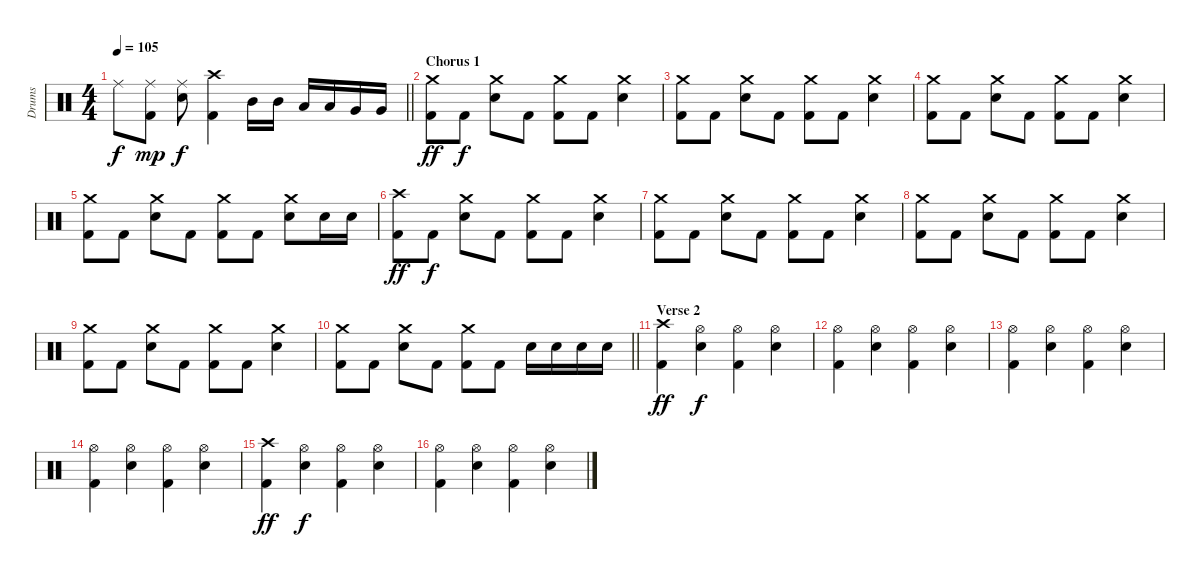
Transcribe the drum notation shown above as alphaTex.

\track ("Drums" "Drums") {instrument percussion}
\staff {score}
\articulation defaults
\ts (4 4)
\tempo 105
\clef neutral
\barLineRight lightlight
\ks c "Ride (middle)".8{dy f}
("Ride (middle)" "Kick (hit) 2").8{dy mp} ("Ride (middle)" "Snare (hit) 2").8{dy f} ("Crash high (hit)" "Kick (hit) 2").4 "Mid Tom (hit)".16 "Mid Tom (hit)".16 "Low Tom (hit)".16 "Low Tom (hit)".16 "Very Low Tom (hit)".16 "Very Low Tom (hit)".16 |
\section ("" "Chorus 1")
("Crash medium (hit)" "Kick (hit) 2").8{dy ff} "Kick (hit) 2".8{dy f} ("Crash medium (hit)" "Snare (hit) 2").8 "Kick (hit) 2".8 ("Crash medium (hit)" "Kick (hit) 2").8 "Kick (hit) 2".8 ("Crash medium (hit)" "Snare (hit) 2").4 |
("Crash medium (hit)" "Kick (hit) 2").8 "Kick (hit) 2".8 ("Crash medium (hit)" "Snare (hit) 2").8 "Kick (hit) 2".8 ("Crash medium (hit)" "Kick (hit) 2").8 "Kick (hit) 2".8 ("Crash medium (hit)" "Snare (hit) 2").4 |
("Crash medium (hit)" "Kick (hit) 2").8 "Kick (hit) 2".8 ("Crash medium (hit)" "Snare (hit) 2").8 "Kick (hit) 2".8 ("Crash medium (hit)" "Kick (hit) 2").8 "Kick (hit) 2".8 ("Crash medium (hit)" "Snare (hit) 2").4 |
("Crash medium (hit)" "Kick (hit) 2").8 "Kick (hit) 2".8 ("Crash medium (hit)" "Snare (hit) 2").8 "Kick (hit) 2".8 ("Crash medium (hit)" "Kick (hit) 2").8 "Kick (hit) 2".8 ("Crash medium (hit)" "Snare (hit) 2").8 "Snare (hit) 2".16 "Snare (hit) 2".16 |
("Crash high (hit)" "Kick (hit) 2").8{dy ff} "Kick (hit) 2".8{dy f} ("Crash medium (hit)" "Snare (hit) 2").8 "Kick (hit) 2".8 ("Crash medium (hit)" "Kick (hit) 2").8 "Kick (hit) 2".8 ("Crash medium (hit)" "Snare (hit) 2").4 |
("Crash medium (hit)" "Kick (hit) 2").8 "Kick (hit) 2".8 ("Crash medium (hit)" "Snare (hit) 2").8 "Kick (hit) 2".8 ("Crash medium (hit)" "Kick (hit) 2").8 "Kick (hit) 2".8 ("Crash medium (hit)" "Snare (hit) 2").4 |
("Crash medium (hit)" "Kick (hit) 2").8 "Kick (hit) 2".8 ("Crash medium (hit)" "Snare (hit) 2").8 "Kick (hit) 2".8 ("Crash medium (hit)" "Kick (hit) 2").8 "Kick (hit) 2".8 ("Crash medium (hit)" "Snare (hit) 2").4 |
("Crash medium (hit)" "Kick (hit) 2").8 "Kick (hit) 2".8 ("Crash medium (hit)" "Snare (hit) 2").8 "Kick (hit) 2".8 ("Crash medium (hit)" "Kick (hit) 2").8 "Kick (hit) 2".8 ("Crash medium (hit)" "Snare (hit) 2").4 |
\barLineRight lightlight
("Crash medium (hit)" "Kick (hit) 2").8 "Kick (hit) 2".8 ("Crash medium (hit)" "Snare (hit) 2").8 "Kick (hit) 2".8 ("Crash medium (hit)" "Kick (hit) 2").8 "Kick (hit) 2".8 "Snare (hit) 2".16 "Snare (hit) 2".16 "Snare (hit) 2".16 "Snare (hit) 2".16 |
\section ("" "Verse 2")
("Crash high (hit)" "Kick (hit) 2").4{dy ff} ("Hi-Hat (open)" "Snare (hit) 2").4{dy f} ("Hi-Hat (open)" "Kick (hit) 2").4 ("Hi-Hat (open)" "Snare (hit) 2").4 |
("Hi-Hat (open)" "Kick (hit) 2").4 ("Hi-Hat (open)" "Snare (hit) 2").4 ("Hi-Hat (open)" "Kick (hit) 2").4 ("Hi-Hat (open)" "Snare (hit) 2").4 |
("Hi-Hat (open)" "Kick (hit) 2").4 ("Hi-Hat (open)" "Snare (hit) 2").4 ("Hi-Hat (open)" "Kick (hit) 2").4 ("Hi-Hat (open)" "Snare (hit) 2").4 |
("Hi-Hat (open)" "Kick (hit) 2").4 ("Hi-Hat (open)" "Snare (hit) 2").4 ("Hi-Hat (open)" "Kick (hit) 2").4 ("Hi-Hat (open)" "Snare (hit) 2").4 |
("Crash high (hit)" "Kick (hit) 2").4{dy ff} ("Hi-Hat (open)" "Snare (hit) 2").4{dy f} ("Hi-Hat (open)" "Kick (hit) 2").4 ("Hi-Hat (open)" "Snare (hit) 2").4 |
("Hi-Hat (open)" "Kick (hit) 2").4 ("Hi-Hat (open)" "Snare (hit) 2").4 ("Hi-Hat (open)" "Kick (hit) 2").4 ("Hi-Hat (open)" "Snare (hit) 2").4
